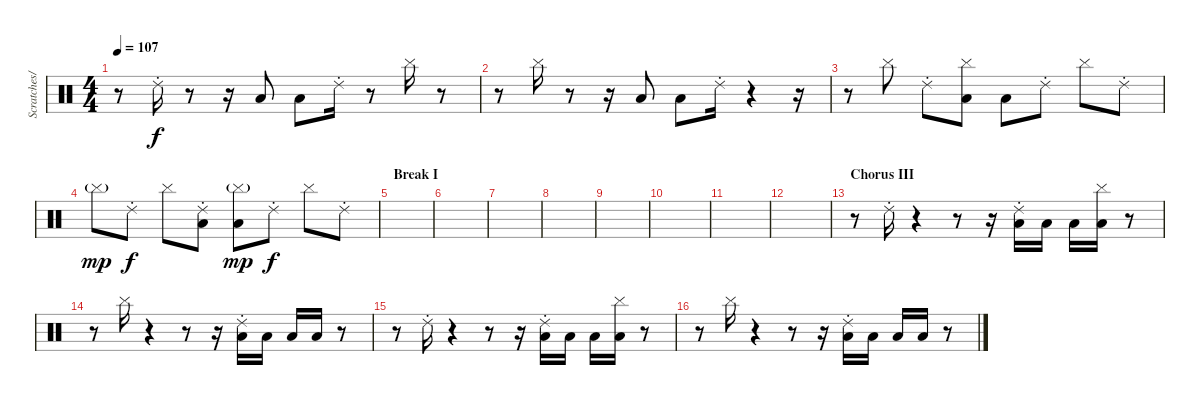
\track ("Scratches/Toms" "Scratches/") {instrument percussion}
\staff {score}
\articulation defaults
\ts (4 4)
\tempo 107
\clef neutral
\ks c
r.8{dy f} "Ride (choke) 2".16 r.8 r.16 "Low Floor Tom (hit)".8 "Low Floor Tom (hit)".8 "Ride (choke) 2".16 r.8 "Cymbal (hit)".16 r.8 |
r.8 "Cymbal (hit)".16 r.8 r.16 "Low Floor Tom (hit)".8 "Low Floor Tom (hit)".8 "Ride (choke) 2".16 r.4 r.16 |
r.8 "Cymbal (hit)".8 "Ride (choke) 2".8 ("Low Floor Tom (hit)" "Cymbal (hit)").8 "Low Floor Tom (hit)".8 "Ride (choke) 2".8 "Cymbal (hit)".8 "Ride (choke) 2".8 |
"Cymbal (hit)"{g}.8{dy mp} "Ride (choke) 2".8{dy f} "Cymbal (hit)".8 ("Low Floor Tom (hit)" "Ride (choke) 2").8 ("Low Floor Tom (hit)" "Cymbal (hit)"{g}).8{dy mp} "Ride (choke) 2".8{dy f} "Cymbal (hit)".8 "Ride (choke) 2".8 |
\section ("" "Break I")
|
|
|
|
|
|
|
|
\section ("" "Chorus III")
r.8 "Ride (choke) 2".16 r.4 r.8 r.16 ("Low Floor Tom (hit)" "Ride (choke) 2").16 "Low Floor Tom (hit)".16 "Low Floor Tom (hit)".16 ("Low Floor Tom (hit)" "Cymbal (hit)").16 r.8 |
r.8 "Cymbal (hit)".16 r.4 r.8 r.16 ("Low Floor Tom (hit)" "Ride (choke) 2").16 "Low Floor Tom (hit)".16 "Low Floor Tom (hit)".16 "Low Floor Tom (hit)".16 r.8 |
r.8 "Ride (choke) 2".16 r.4 r.8 r.16 ("Low Floor Tom (hit)" "Ride (choke) 2").16 "Low Floor Tom (hit)".16 "Low Floor Tom (hit)".16 ("Low Floor Tom (hit)" "Cymbal (hit)").16 r.8 |
r.8 "Cymbal (hit)".16 r.4 r.8 r.16 ("Low Floor Tom (hit)" "Ride (choke) 2").16 "Low Floor Tom (hit)".16 "Low Floor Tom (hit)".16 "Low Floor Tom (hit)".16 r.8
